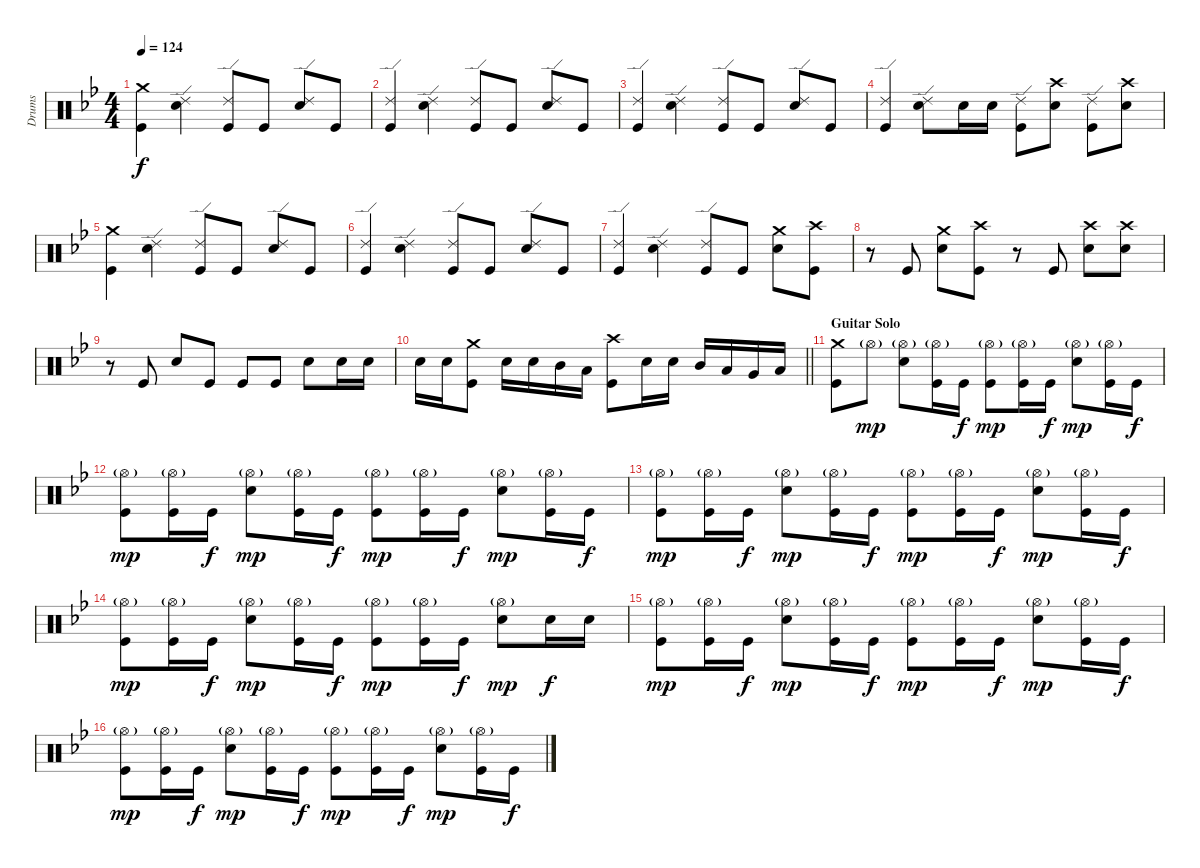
\track ("Drums" "Drums") {instrument percussion}
\staff {score}
\articulation defaults
\ts (4 4)
\tempo 124
\clef neutral
\ks gminor
("Crash medium (hit)" "Kick (hit)").4{dy f} ("Ride (edge) 2" "Snare (hit) 2").4 ("Ride (edge) 2" "Kick (hit)").8 "Kick (hit)".8 ("Ride (edge) 2" "Snare (hit) 2").8 "Kick (hit)".8 |
("Ride (edge) 2" "Kick (hit)").4 ("Ride (edge) 2" "Snare (hit) 2").4 ("Ride (edge) 2" "Kick (hit)").8 "Kick (hit)".8 ("Ride (edge) 2" "Snare (hit) 2").8 "Kick (hit)".8 |
("Ride (edge) 2" "Kick (hit)").4 ("Ride (edge) 2" "Snare (hit) 2").4 ("Ride (edge) 2" "Kick (hit)").8 "Kick (hit)".8 ("Ride (edge) 2" "Snare (hit) 2").8 "Kick (hit)".8 |
("Ride (edge) 2" "Kick (hit)").4 ("Ride (edge) 2" "Snare (hit) 2").8 "Snare (hit) 2".16 "Snare (hit) 2".16 ("Ride (edge) 2" "Kick (hit)").8 ("Crash high (hit)" "Snare (hit) 2").8 ("Ride (edge) 2" "Kick (hit)").8 ("Crash high (hit)" "Snare (hit) 2").8 |
("Crash medium (hit)" "Kick (hit)").4 ("Ride (edge) 2" "Snare (hit) 2").4 ("Ride (edge) 2" "Kick (hit)").8 "Kick (hit)".8 ("Ride (edge) 2" "Snare (hit) 2").8 "Kick (hit)".8 |
("Ride (edge) 2" "Kick (hit)").4 ("Ride (edge) 2" "Snare (hit) 2").4 ("Ride (edge) 2" "Kick (hit)").8 "Kick (hit)".8 ("Ride (edge) 2" "Snare (hit) 2").8 "Kick (hit)".8 |
("Ride (edge) 2" "Kick (hit)").4 ("Ride (edge) 2" "Snare (hit) 2").4 ("Ride (edge) 2" "Kick (hit)").8 "Kick (hit)".8 ("Crash medium (hit)" "Snare (hit) 2").8 ("Crash high (hit)" "Kick (hit)").8 |
r.8 "Kick (hit)".8 ("Crash medium (hit)" "Snare (hit) 2").8 ("Crash high (hit)" "Kick (hit)").8 r.8 "Kick (hit)".8 ("Crash high (hit)" "Snare (hit) 2").8 ("Crash high (hit)" "Snare (hit) 2").8 |
r.8 "Kick (hit)".8 "Snare (hit) 2".8 "Kick (hit)".8 "Kick (hit)".8 "Kick (hit)".8 "Snare (hit) 2".8 "Snare (hit) 2".16 "Snare (hit) 2".16 |
\barLineRight lightlight "Snare (hit) 2".16 "Snare (hit) 2".16
("Crash medium (hit)" "Kick (hit)").8 "Snare (hit) 2".16 "Snare (hit) 2".16 "Mid Tom (hit)".16 "Low Tom (hit)".16 ("Crash high (hit)" "Kick (hit)").8 "Snare (hit) 2".16 "Snare (hit) 2".16 "Mid Tom (hit)".16 "Low Tom (hit)".16 "Very Low Tom (hit)".16 "Low Floor Tom (hit)".16 |
\section ("" "Guitar Solo")
("Crash medium (hit)" "Kick (hit)").8 "Hi-Hat (open)"{g}.8{dy mp} ("Hi-Hat (open)"{g} "Snare (hit) 2").8 ("Hi-Hat (open)"{g} "Kick (hit)").16 "Kick (hit)".16{dy f} ("Hi-Hat (open)"{g} "Kick (hit)").8{dy mp} ("Hi-Hat (open)"{g} "Kick (hit)").16 "Kick (hit)".16{dy f} ("Hi-Hat (open)"{g} "Snare (hit) 2").8{dy mp} ("Hi-Hat (open)"{g} "Kick (hit)").16 "Kick (hit)".16{dy f} |
("Hi-Hat (open)"{g} "Kick (hit)").8{dy mp} ("Hi-Hat (open)"{g} "Kick (hit)").16 "Kick (hit)".16{dy f} ("Hi-Hat (open)"{g} "Snare (hit) 2").8{dy mp} ("Hi-Hat (open)"{g} "Kick (hit)").16 "Kick (hit)".16{dy f} ("Hi-Hat (open)"{g} "Kick (hit)").8{dy mp} ("Hi-Hat (open)"{g} "Kick (hit)").16 "Kick (hit)".16{dy f} ("Hi-Hat (open)"{g} "Snare (hit) 2").8{dy mp} ("Hi-Hat (open)"{g} "Kick (hit)").16 "Kick (hit)".16{dy f} |
("Hi-Hat (open)"{g} "Kick (hit)").8{dy mp} ("Hi-Hat (open)"{g} "Kick (hit)").16 "Kick (hit)".16{dy f} ("Hi-Hat (open)"{g} "Snare (hit) 2").8{dy mp} ("Hi-Hat (open)"{g} "Kick (hit)").16 "Kick (hit)".16{dy f} ("Hi-Hat (open)"{g} "Kick (hit)").8{dy mp} ("Hi-Hat (open)"{g} "Kick (hit)").16 "Kick (hit)".16{dy f} ("Hi-Hat (open)"{g} "Snare (hit) 2").8{dy mp} ("Hi-Hat (open)"{g} "Kick (hit)").16 "Kick (hit)".16{dy f} |
("Hi-Hat (open)"{g} "Kick (hit)").8{dy mp} ("Hi-Hat (open)"{g} "Kick (hit)").16 "Kick (hit)".16{dy f} ("Hi-Hat (open)"{g} "Snare (hit) 2").8{dy mp} ("Hi-Hat (open)"{g} "Kick (hit)").16 "Kick (hit)".16{dy f} ("Hi-Hat (open)"{g} "Kick (hit)").8{dy mp} ("Hi-Hat (open)"{g} "Kick (hit)").16 "Kick (hit)".16{dy f} ("Hi-Hat (open)"{g} "Snare (hit) 2").8{dy mp} "Snare (hit) 2".16{dy f} "Snare (hit) 2".16 |
("Hi-Hat (open)"{g} "Kick (hit)").8{dy mp} ("Hi-Hat (open)"{g} "Kick (hit)").16 "Kick (hit)".16{dy f} ("Hi-Hat (open)"{g} "Snare (hit) 2").8{dy mp} ("Hi-Hat (open)"{g} "Kick (hit)").16 "Kick (hit)".16{dy f} ("Hi-Hat (open)"{g} "Kick (hit)").8{dy mp} ("Hi-Hat (open)"{g} "Kick (hit)").16 "Kick (hit)".16{dy f} ("Hi-Hat (open)"{g} "Snare (hit) 2").8{dy mp} ("Hi-Hat (open)"{g} "Kick (hit)").16 "Kick (hit)".16{dy f} |
("Hi-Hat (open)"{g} "Kick (hit)").8{dy mp} ("Hi-Hat (open)"{g} "Kick (hit)").16 "Kick (hit)".16{dy f} ("Hi-Hat (open)"{g} "Snare (hit) 2").8{dy mp} ("Hi-Hat (open)"{g} "Kick (hit)").16 "Kick (hit)".16{dy f} ("Hi-Hat (open)"{g} "Kick (hit)").8{dy mp} ("Hi-Hat (open)"{g} "Kick (hit)").16 "Kick (hit)".16{dy f} ("Hi-Hat (open)"{g} "Snare (hit) 2").8{dy mp} ("Hi-Hat (open)"{g} "Kick (hit)").16 "Kick (hit)".16{dy f}
